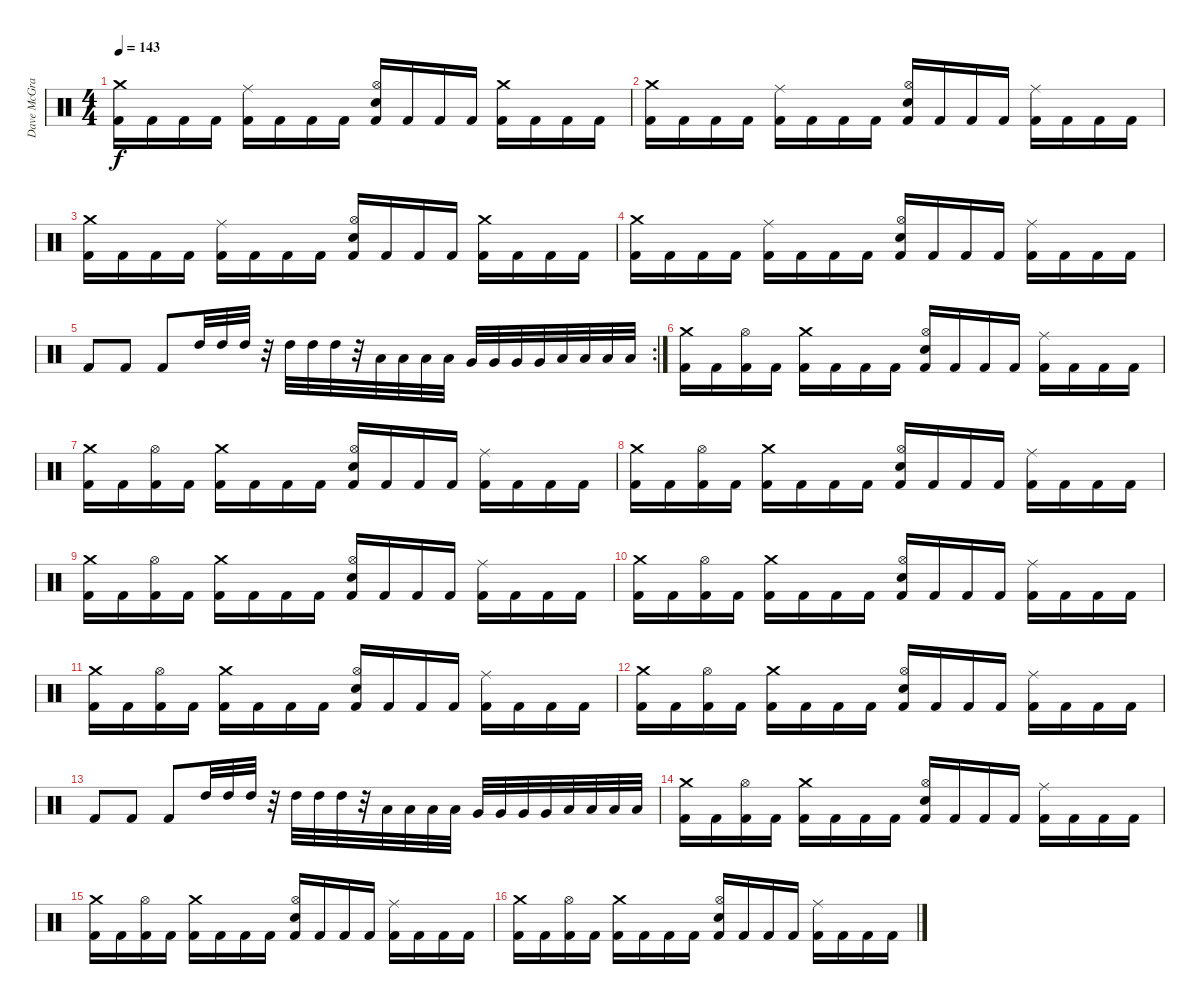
\track ("Dave McGraw" "Dave McGra") {instrument percussion}
\staff {score}
\articulation defaults
\ts (4 4)
\tempo 143
\clef neutral
\ks c
("Crash medium (hit)" "Kick (hit) 2").16{dy f} "Kick (hit) 2".16 "Kick (hit) 2".16 "Kick (hit) 2".16 ("Ride (middle)" "Kick (hit) 2").16 "Kick (hit) 2".16 "Kick (hit) 2".16 "Kick (hit) 2".16 ("Hi-Hat (open)" "Electric Snare (hit)" "Kick (hit) 2").16 "Kick (hit) 2".16 "Kick (hit) 2".16 "Kick (hit) 2".16 ("Crash medium (hit)" "Kick (hit) 2").16 "Kick (hit) 2".16 "Kick (hit) 2".16 "Kick (hit) 2".16 |
("Crash medium (hit)" "Kick (hit) 2").16 "Kick (hit) 2".16 "Kick (hit) 2".16 "Kick (hit) 2".16 ("Ride (middle)" "Kick (hit) 2").16 "Kick (hit) 2".16 "Kick (hit) 2".16 "Kick (hit) 2".16 ("Hi-Hat (open)" "Electric Snare (hit)" "Kick (hit) 2").16 "Kick (hit) 2".16 "Kick (hit) 2".16 "Kick (hit) 2".16 ("Ride (middle)" "Kick (hit) 2").16 "Kick (hit) 2".16 "Kick (hit) 2".16 "Kick (hit) 2".16 |
("Crash medium (hit)" "Kick (hit) 2").16 "Kick (hit) 2".16 "Kick (hit) 2".16 "Kick (hit) 2".16 ("Ride (middle)" "Kick (hit) 2").16 "Kick (hit) 2".16 "Kick (hit) 2".16 "Kick (hit) 2".16 ("Hi-Hat (open)" "Electric Snare (hit)" "Kick (hit) 2").16 "Kick (hit) 2".16 "Kick (hit) 2".16 "Kick (hit) 2".16 ("Crash medium (hit)" "Kick (hit) 2").16 "Kick (hit) 2".16 "Kick (hit) 2".16 "Kick (hit) 2".16 |
("Crash medium (hit)" "Kick (hit) 2").16 "Kick (hit) 2".16 "Kick (hit) 2".16 "Kick (hit) 2".16 ("Ride (middle)" "Kick (hit) 2").16 "Kick (hit) 2".16 "Kick (hit) 2".16 "Kick (hit) 2".16 ("Hi-Hat (open)" "Electric Snare (hit)" "Kick (hit) 2").16 "Kick (hit) 2".16 "Kick (hit) 2".16 "Kick (hit) 2".16 ("Ride (middle)" "Kick (hit) 2").16 "Kick (hit) 2".16 "Kick (hit) 2".16 "Kick (hit) 2".16 |
\rc 2 "Kick (hit) 2".8 "Kick (hit) 2".8 "Kick (hit) 2".8 "High Tom (hit)".32 "High Tom (hit)".32 "High Tom (hit)".32
r.32 "High Tom (hit)".32 "High Tom (hit)".32 "High Tom (hit)".32 r.32 "Low Tom (hit)".32 "Low Tom (hit)".32 "Low Tom (hit)".32 "Low Tom (hit)".32 "Very Low Tom (hit)".32 "Very Low Tom (hit)".32 "Very Low Tom (hit)".32 "Very Low Tom (hit)".32 "Low Floor Tom (hit)".32 "Low Floor Tom (hit)".32 "Low Floor Tom (hit)".32 "Low Floor Tom (hit)".32 |
("Crash medium (hit)" "Kick (hit) 2").16 "Kick (hit) 2".16 ("Hi-Hat (open)" "Kick (hit) 2").16 "Kick (hit) 2".16 ("Crash medium (hit)" "Kick (hit) 2").16 "Kick (hit) 2".16 "Kick (hit) 2".16 "Kick (hit) 2".16 ("Hi-Hat (open)" "Electric Snare (hit)" "Kick (hit) 2").16 "Kick (hit) 2".16 "Kick (hit) 2".16 "Kick (hit) 2".16 ("Ride (middle)" "Kick (hit) 2").16 "Kick (hit) 2".16 "Kick (hit) 2".16 "Kick (hit) 2".16 |
("Crash medium (hit)" "Kick (hit) 2").16 "Kick (hit) 2".16 ("Hi-Hat (open)" "Kick (hit) 2").16 "Kick (hit) 2".16 ("Crash medium (hit)" "Kick (hit) 2").16 "Kick (hit) 2".16 "Kick (hit) 2".16 "Kick (hit) 2".16 ("Hi-Hat (open)" "Electric Snare (hit)" "Kick (hit) 2").16 "Kick (hit) 2".16 "Kick (hit) 2".16 "Kick (hit) 2".16 ("Ride (middle)" "Kick (hit) 2").16 "Kick (hit) 2".16 "Kick (hit) 2".16 "Kick (hit) 2".16 |
("Crash medium (hit)" "Kick (hit) 2").16 "Kick (hit) 2".16 ("Hi-Hat (open)" "Kick (hit) 2").16 "Kick (hit) 2".16 ("Crash medium (hit)" "Kick (hit) 2").16 "Kick (hit) 2".16 "Kick (hit) 2".16 "Kick (hit) 2".16 ("Hi-Hat (open)" "Electric Snare (hit)" "Kick (hit) 2").16 "Kick (hit) 2".16 "Kick (hit) 2".16 "Kick (hit) 2".16 ("Ride (middle)" "Kick (hit) 2").16 "Kick (hit) 2".16 "Kick (hit) 2".16 "Kick (hit) 2".16 |
("Crash medium (hit)" "Kick (hit) 2").16 "Kick (hit) 2".16 ("Hi-Hat (open)" "Kick (hit) 2").16 "Kick (hit) 2".16 ("Crash medium (hit)" "Kick (hit) 2").16 "Kick (hit) 2".16 "Kick (hit) 2".16 "Kick (hit) 2".16 ("Hi-Hat (open)" "Electric Snare (hit)" "Kick (hit) 2").16 "Kick (hit) 2".16 "Kick (hit) 2".16 "Kick (hit) 2".16 ("Ride (middle)" "Kick (hit) 2").16 "Kick (hit) 2".16 "Kick (hit) 2".16 "Kick (hit) 2".16 |
("Crash medium (hit)" "Kick (hit) 2").16 "Kick (hit) 2".16 ("Hi-Hat (open)" "Kick (hit) 2").16 "Kick (hit) 2".16 ("Crash medium (hit)" "Kick (hit) 2").16 "Kick (hit) 2".16 "Kick (hit) 2".16 "Kick (hit) 2".16 ("Hi-Hat (open)" "Electric Snare (hit)" "Kick (hit) 2").16 "Kick (hit) 2".16 "Kick (hit) 2".16 "Kick (hit) 2".16 ("Ride (middle)" "Kick (hit) 2").16 "Kick (hit) 2".16 "Kick (hit) 2".16 "Kick (hit) 2".16 |
("Crash medium (hit)" "Kick (hit) 2").16 "Kick (hit) 2".16 ("Hi-Hat (open)" "Kick (hit) 2").16 "Kick (hit) 2".16 ("Crash medium (hit)" "Kick (hit) 2").16 "Kick (hit) 2".16 "Kick (hit) 2".16 "Kick (hit) 2".16 ("Hi-Hat (open)" "Electric Snare (hit)" "Kick (hit) 2").16 "Kick (hit) 2".16 "Kick (hit) 2".16 "Kick (hit) 2".16 ("Ride (middle)" "Kick (hit) 2").16 "Kick (hit) 2".16 "Kick (hit) 2".16 "Kick (hit) 2".16 |
("Crash medium (hit)" "Kick (hit) 2").16 "Kick (hit) 2".16 ("Hi-Hat (open)" "Kick (hit) 2").16 "Kick (hit) 2".16 ("Crash medium (hit)" "Kick (hit) 2").16 "Kick (hit) 2".16 "Kick (hit) 2".16 "Kick (hit) 2".16 ("Hi-Hat (open)" "Electric Snare (hit)" "Kick (hit) 2").16 "Kick (hit) 2".16 "Kick (hit) 2".16 "Kick (hit) 2".16 ("Ride (middle)" "Kick (hit) 2").16 "Kick (hit) 2".16 "Kick (hit) 2".16 "Kick (hit) 2".16 |
"Kick (hit) 2".8 "Kick (hit) 2".8 "Kick (hit) 2".8 "High Tom (hit)".32 "High Tom (hit)".32 "High Tom (hit)".32 r.32 "High Tom (hit)".32 "High Tom (hit)".32 "High Tom (hit)".32 r.32 "Low Tom (hit)".32 "Low Tom (hit)".32 "Low Tom (hit)".32 "Low Tom (hit)".32 "Very Low Tom (hit)".32 "Very Low Tom (hit)".32 "Very Low Tom (hit)".32 "Very Low Tom (hit)".32 "Low Floor Tom (hit)".32 "Low Floor Tom (hit)".32 "Low Floor Tom (hit)".32 "Low Floor Tom (hit)".32 |
("Crash medium (hit)" "Kick (hit) 2").16 "Kick (hit) 2".16 ("Hi-Hat (open)" "Kick (hit) 2").16 "Kick (hit) 2".16 ("Crash medium (hit)" "Kick (hit) 2").16 "Kick (hit) 2".16 "Kick (hit) 2".16 "Kick (hit) 2".16 ("Hi-Hat (open)" "Electric Snare (hit)" "Kick (hit) 2").16 "Kick (hit) 2".16 "Kick (hit) 2".16 "Kick (hit) 2".16 ("Ride (middle)" "Kick (hit) 2").16 "Kick (hit) 2".16 "Kick (hit) 2".16 "Kick (hit) 2".16 |
("Crash medium (hit)" "Kick (hit) 2").16 "Kick (hit) 2".16 ("Hi-Hat (open)" "Kick (hit) 2").16 "Kick (hit) 2".16 ("Crash medium (hit)" "Kick (hit) 2").16 "Kick (hit) 2".16 "Kick (hit) 2".16 "Kick (hit) 2".16 ("Hi-Hat (open)" "Electric Snare (hit)" "Kick (hit) 2").16 "Kick (hit) 2".16 "Kick (hit) 2".16 "Kick (hit) 2".16 ("Ride (middle)" "Kick (hit) 2").16 "Kick (hit) 2".16 "Kick (hit) 2".16 "Kick (hit) 2".16 |
("Crash medium (hit)" "Kick (hit) 2").16 "Kick (hit) 2".16 ("Hi-Hat (open)" "Kick (hit) 2").16 "Kick (hit) 2".16 ("Crash medium (hit)" "Kick (hit) 2").16 "Kick (hit) 2".16 "Kick (hit) 2".16 "Kick (hit) 2".16 ("Hi-Hat (open)" "Electric Snare (hit)" "Kick (hit) 2").16 "Kick (hit) 2".16 "Kick (hit) 2".16 "Kick (hit) 2".16 ("Ride (middle)" "Kick (hit) 2").16 "Kick (hit) 2".16 "Kick (hit) 2".16 "Kick (hit) 2".16
